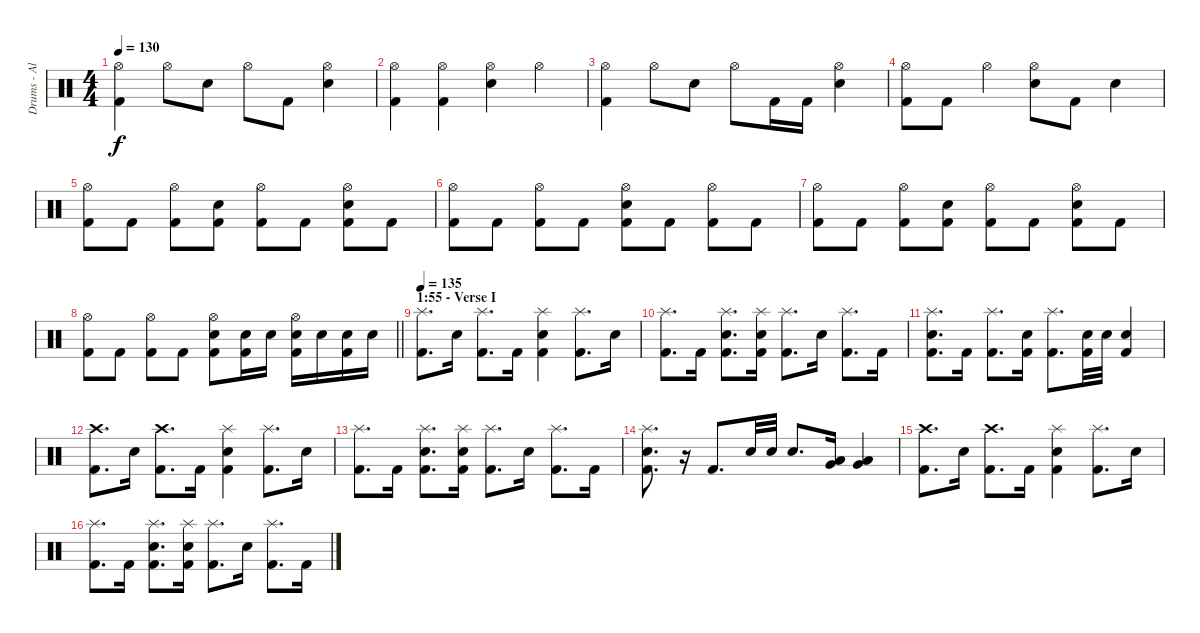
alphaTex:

\track ("Drums - Alex Wank" "Drums - Al") {instrument percussion}
\staff {score}
\articulation defaults
\ts (4 4)
\tempo 130
\clef neutral
\ks c
("Hi-Hat (open)" "Kick (hit) 2").4{dy f} "Hi-Hat (open)".8 "Electric Snare (hit)".8 "Hi-Hat (open)".8 "Kick (hit) 2".8 ("Hi-Hat (open)" "Electric Snare (hit)").4 |
("Hi-Hat (open)" "Kick (hit) 2").4 ("Hi-Hat (open)" "Kick (hit) 2").4 ("Hi-Hat (open)" "Electric Snare (hit)").4 "Hi-Hat (open)".4 |
("Hi-Hat (open)" "Kick (hit) 2").4 "Hi-Hat (open)".8 "Electric Snare (hit)".8 "Hi-Hat (open)".8 "Kick (hit) 2".16 "Kick (hit) 2".16 ("Hi-Hat (open)" "Electric Snare (hit)").4 |
("Hi-Hat (open)" "Kick (hit) 2").8 "Kick (hit) 2".8 "Hi-Hat (open)".4 ("Hi-Hat (open)" "Electric Snare (hit)").8 "Kick (hit) 2".8 "Electric Snare (hit)".4 |
("Hi-Hat (open)" "Kick (hit) 2").8 "Kick (hit) 2".8 ("Hi-Hat (open)" "Kick (hit) 2").8 ("Electric Snare (hit)" "Kick (hit) 2").8 ("Hi-Hat (open)" "Kick (hit) 2").8 "Kick (hit) 2".8 ("Hi-Hat (open)" "Electric Snare (hit)" "Kick (hit) 2").8 "Kick (hit) 2".8 |
("Hi-Hat (open)" "Kick (hit) 2").8 "Kick (hit) 2".8 ("Hi-Hat (open)" "Kick (hit) 2").8 "Kick (hit) 2".8 ("Hi-Hat (open)" "Electric Snare (hit)" "Kick (hit) 2").8 "Kick (hit) 2".8 ("Hi-Hat (open)" "Kick (hit) 2").8 "Kick (hit) 2".8 |
("Hi-Hat (open)" "Kick (hit) 2").8 "Kick (hit) 2".8 ("Hi-Hat (open)" "Kick (hit) 2").8 ("Electric Snare (hit)" "Kick (hit) 2").8 ("Hi-Hat (open)" "Kick (hit) 2").8 "Kick (hit) 2".8 ("Hi-Hat (open)" "Electric Snare (hit)" "Kick (hit) 2").8 "Kick (hit) 2".8 |
\barLineRight lightlight
("Hi-Hat (open)" "Kick (hit) 2").8 "Kick (hit) 2".8 ("Hi-Hat (open)" "Kick (hit) 2").8 "Kick (hit) 2".8 ("Hi-Hat (open)" "Electric Snare (hit)" "Kick (hit) 2").8 ("Electric Snare (hit)" "Kick (hit) 2").16 "Electric Snare (hit)".16 ("Hi-Hat (open)" "Electric Snare (hit)" "Kick (hit) 2").16 "Electric Snare (hit)".16 ("Electric Snare (hit)" "Kick (hit) 2").16 "Electric Snare (hit)".16 |
\section ("" "1:55 - Verse I")
\tempo 135
("Splash (hit)" "Kick (hit) 2").8{d} "Electric Snare (hit)".16 ("Splash (hit)" "Kick (hit) 2").8{d} "Kick (hit) 2".16 ("Splash (hit)" "Electric Snare (hit)" "Kick (hit) 2").4 ("Splash (hit)" "Kick (hit) 2").8{d} "Electric Snare (hit)".16 |
("Splash (hit)" "Kick (hit) 2").8{d} "Kick (hit) 2".16 ("Splash (hit)" "Electric Snare (hit)" "Kick (hit) 2").8{d} ("Splash (hit)" "Electric Snare (hit)" "Kick (hit) 2").16 ("Splash (hit)" "Kick (hit) 2").8{d} "Electric Snare (hit)".16 ("Splash (hit)" "Kick (hit) 2").8{d} "Kick (hit) 2".16 |
("Splash (hit)" "Electric Snare (hit)" "Kick (hit) 2").8{d} "Kick (hit) 2".16 ("Splash (hit)" "Kick (hit) 2").8{d} ("Electric Snare (hit)" "Kick (hit) 2").16 ("Splash (hit)" "Kick (hit) 2").8{d} ("Electric Snare (hit)" "Kick (hit) 2").32 "Electric Snare (hit)".32 ("Electric Snare (hit)" "Kick (hit) 2").4 |
("Crash high (hit)" "Kick (hit) 2").8{d} "Electric Snare (hit)".16 ("Crash high (hit)" "Kick (hit) 2").8{d} "Kick (hit) 2".16 ("Splash (hit)" "Electric Snare (hit)" "Kick (hit) 2").4 ("Splash (hit)" "Kick (hit) 2").8{d} "Electric Snare (hit)".16 |
("Splash (hit)" "Kick (hit) 2").8{d} "Kick (hit) 2".16 ("Splash (hit)" "Electric Snare (hit)" "Kick (hit) 2").8{d} ("Splash (hit)" "Electric Snare (hit)" "Kick (hit) 2").16 ("Splash (hit)" "Kick (hit) 2").8{d} "Electric Snare (hit)".16 ("Splash (hit)" "Kick (hit) 2").8{d} "Kick (hit) 2".16 |
("Splash (hit)" "Electric Snare (hit)" "Kick (hit) 2").8{d} r.16 "Kick (hit) 2".8{d} "Electric Snare (hit)".32 "Electric Snare (hit)".32 "Electric Snare (hit)".8{d} ("Very Low Tom (hit)" "Low Floor Tom (hit)").16 ("Very Low Tom (hit)" "Low Floor Tom (hit)").4 |
("Crash high (hit)" "Kick (hit) 2").8{d} "Electric Snare (hit)".16 ("Crash high (hit)" "Kick (hit) 2").8{d} "Kick (hit) 2".16 ("Splash (hit)" "Electric Snare (hit)" "Kick (hit) 2").4 ("Splash (hit)" "Kick (hit) 2").8{d} "Electric Snare (hit)".16 |
("Splash (hit)" "Kick (hit) 2").8{d} "Kick (hit) 2".16 ("Splash (hit)" "Electric Snare (hit)" "Kick (hit) 2").8{d} ("Splash (hit)" "Electric Snare (hit)" "Kick (hit) 2").16 ("Splash (hit)" "Kick (hit) 2").8{d} "Electric Snare (hit)".16 ("Splash (hit)" "Kick (hit) 2").8{d} "Kick (hit) 2".16
